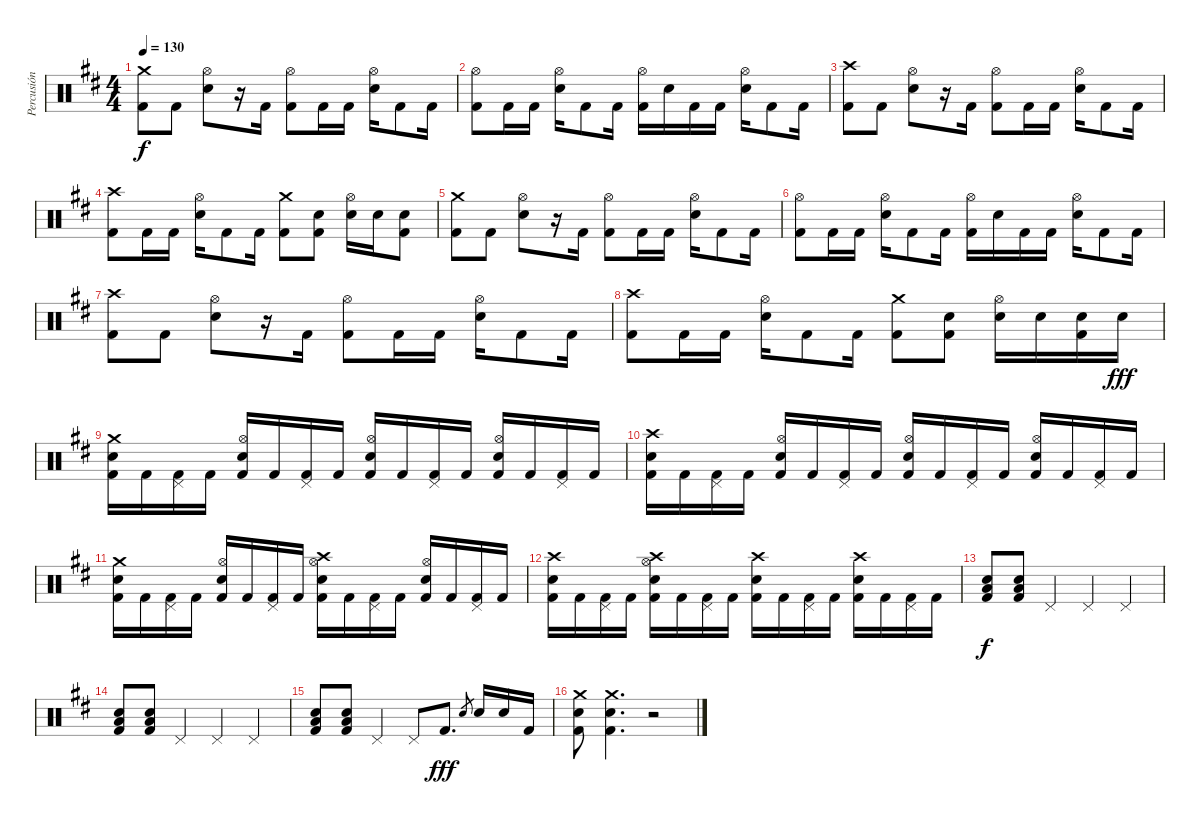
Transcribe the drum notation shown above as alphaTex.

\track ("Percusión" "Percusión") {instrument percussion}
\staff {score}
\articulation defaults
\ts (4 4)
\tempo 130
\clef neutral
\ks d
("Crash medium (hit)" "Kick (hit) 2").8{dy f} "Kick (hit) 2".8 ("Hi-Hat (open)" "Electric Snare (hit)").8 r.16 "Kick (hit) 2".16 ("Hi-Hat (open)" "Kick (hit) 2").8 "Kick (hit) 2".16 "Kick (hit) 2".16 ("Hi-Hat (open)" "Electric Snare (hit)").16 "Kick (hit) 2".8 "Kick (hit) 2".16 |
("Hi-Hat (open)" "Kick (hit) 2").8 "Kick (hit) 2".16 "Kick (hit) 2".16 ("Hi-Hat (open)" "Electric Snare (hit)").16 "Kick (hit) 2".8 "Kick (hit) 2".16 ("Hi-Hat (open)" "Kick (hit) 2").16 "Electric Snare (hit)".16 "Kick (hit) 2".16 "Kick (hit) 2".16 ("Hi-Hat (open)" "Electric Snare (hit)").16 "Kick (hit) 2".8 "Kick (hit) 2".16 |
("Crash high (hit)" "Kick (hit) 2").8 "Kick (hit) 2".8 ("Hi-Hat (open)" "Electric Snare (hit)").8 r.16 "Kick (hit) 2".16 ("Hi-Hat (open)" "Kick (hit) 2").8 "Kick (hit) 2".16 "Kick (hit) 2".16 ("Hi-Hat (open)" "Electric Snare (hit)").16 "Kick (hit) 2".8 "Kick (hit) 2".16 |
("Crash high (hit)" "Kick (hit) 2").8 "Kick (hit) 2".16 "Kick (hit) 2".16 ("Hi-Hat (open)" "Electric Snare (hit)").16 "Kick (hit) 2".8 "Kick (hit) 2".16 ("Crash medium (hit)" "Kick (hit) 2").8 ("Electric Snare (hit)" "Kick (hit) 2").8 ("Hi-Hat (open)" "Electric Snare (hit)").16 "Electric Snare (hit)".16 ("Electric Snare (hit)" "Kick (hit) 2").8 |
("Crash medium (hit)" "Kick (hit) 2").8 "Kick (hit) 2".8 ("Hi-Hat (open)" "Electric Snare (hit)").8 r.16 "Kick (hit) 2".16 ("Hi-Hat (open)" "Kick (hit) 2").8 "Kick (hit) 2".16 "Kick (hit) 2".16 ("Hi-Hat (open)" "Electric Snare (hit)").16 "Kick (hit) 2".8 "Kick (hit) 2".16 |
("Hi-Hat (open)" "Kick (hit) 2").8 "Kick (hit) 2".16 "Kick (hit) 2".16 ("Hi-Hat (open)" "Electric Snare (hit)").16 "Kick (hit) 2".8 "Kick (hit) 2".16 ("Hi-Hat (open)" "Kick (hit) 2").16 "Electric Snare (hit)".16 "Kick (hit) 2".16 "Kick (hit) 2".16 ("Hi-Hat (open)" "Electric Snare (hit)").16 "Kick (hit) 2".8 "Kick (hit) 2".16 |
("Crash high (hit)" "Kick (hit) 2").8 "Kick (hit) 2".8 ("Hi-Hat (open)" "Electric Snare (hit)").8 r.16 "Kick (hit) 2".16 ("Hi-Hat (open)" "Kick (hit) 2").8 "Kick (hit) 2".16 "Kick (hit) 2".16 ("Hi-Hat (open)" "Electric Snare (hit)").16 "Kick (hit) 2".8 "Kick (hit) 2".16 |
("Crash high (hit)" "Kick (hit) 2").8 "Kick (hit) 2".16 "Kick (hit) 2".16 ("Hi-Hat (open)" "Electric Snare (hit)").16 "Kick (hit) 2".8 "Kick (hit) 2".16 ("Crash medium (hit)" "Kick (hit) 2").8 ("Electric Snare (hit)" "Kick (hit) 2").8 ("Hi-Hat (open)" "Electric Snare (hit)").16 "Electric Snare (hit)".16 ("Electric Snare (hit)" "Kick (hit) 2").16 "Electric Snare (hit)".16{dy fff} |
("Crash medium (hit)" "Electric Snare (hit)" "Kick (hit) 2").16 "Kick (hit) 2".16 ("Pedal Hi-Hat (hit)" "Kick (hit) 2").16 "Kick (hit) 2".16 ("Hi-Hat (open)" "Electric Snare (hit)" "Kick (hit) 2").16 "Kick (hit) 2".16 ("Pedal Hi-Hat (hit)" "Kick (hit) 2").16 "Kick (hit) 2".16 ("Hi-Hat (open)" "Electric Snare (hit)" "Kick (hit) 2").16 "Kick (hit) 2".16 ("Pedal Hi-Hat (hit)" "Kick (hit) 2").16 "Kick (hit) 2".16 ("Hi-Hat (open)" "Electric Snare (hit)" "Kick (hit) 2").16 "Kick (hit) 2".16 ("Pedal Hi-Hat (hit)" "Kick (hit) 2").16 "Kick (hit) 2".16 |
("Crash high (hit)" "Electric Snare (hit)" "Kick (hit) 2").16 "Kick (hit) 2".16 ("Pedal Hi-Hat (hit)" "Kick (hit) 2").16 "Kick (hit) 2".16 ("Hi-Hat (open)" "Electric Snare (hit)" "Kick (hit) 2").16 "Kick (hit) 2".16 ("Pedal Hi-Hat (hit)" "Kick (hit) 2").16 "Kick (hit) 2".16 ("Hi-Hat (open)" "Electric Snare (hit)" "Kick (hit) 2").16 "Kick (hit) 2".16 ("Pedal Hi-Hat (hit)" "Kick (hit) 2").16 "Kick (hit) 2".16 ("Hi-Hat (open)" "Electric Snare (hit)" "Kick (hit) 2").16 "Kick (hit) 2".16 ("Pedal Hi-Hat (hit)" "Kick (hit) 2").16 "Kick (hit) 2".16 |
("Crash medium (hit)" "Electric Snare (hit)" "Kick (hit) 2").16 "Kick (hit) 2".16 ("Pedal Hi-Hat (hit)" "Kick (hit) 2").16 "Kick (hit) 2".16 ("Hi-Hat (open)" "Electric Snare (hit)" "Kick (hit) 2").16 "Kick (hit) 2".16 ("Pedal Hi-Hat (hit)" "Kick (hit) 2").16 "Kick (hit) 2".16 ("Crash high (hit)" "Hi-Hat (open)" "Electric Snare (hit)" "Kick (hit) 2").16 "Kick (hit) 2".16 ("Pedal Hi-Hat (hit)" "Kick (hit) 2").16 "Kick (hit) 2".16 ("Hi-Hat (open)" "Electric Snare (hit)" "Kick (hit) 2").16 "Kick (hit) 2".16 ("Pedal Hi-Hat (hit)" "Kick (hit) 2").16 "Kick (hit) 2".16 |
("Crash high (hit)" "Electric Snare (hit)" "Kick (hit) 2").16 "Kick (hit) 2".16 ("Pedal Hi-Hat (hit)" "Kick (hit) 2").16 "Kick (hit) 2".16 ("Crash high (hit)" "Hi-Hat (open)" "Electric Snare (hit)" "Kick (hit) 2").16 "Kick (hit) 2".16 ("Pedal Hi-Hat (hit)" "Kick (hit) 2").16 "Kick (hit) 2".16 ("Crash high (hit)" "Electric Snare (hit)" "Kick (hit) 2").16 "Kick (hit) 2".16 ("Pedal Hi-Hat (hit)" "Kick (hit) 2").16 "Kick (hit) 2".16 ("Crash high (hit)" "Electric Snare (hit)" "Kick (hit) 2").16 "Kick (hit) 2".16 ("Pedal Hi-Hat (hit)" "Kick (hit) 2").16 "Kick (hit) 2".16 |
("Low Floor Tom (hit)" "Electric Snare (hit)" "Kick (hit) 2").8{dy f} ("Low Floor Tom (hit)" "Electric Snare (hit)" "Kick (hit) 2").8 "Pedal Hi-Hat (hit)".4 "Pedal Hi-Hat (hit)".4 "Pedal Hi-Hat (hit)".4 |
("Low Floor Tom (hit)" "Electric Snare (hit)" "Kick (hit) 2").8 ("Low Floor Tom (hit)" "Electric Snare (hit)" "Kick (hit) 2").8 "Pedal Hi-Hat (hit)".4 "Pedal Hi-Hat (hit)".4 "Pedal Hi-Hat (hit)".4 |
("Low Floor Tom (hit)" "Electric Snare (hit)" "Kick (hit) 2").8 ("Low Floor Tom (hit)" "Electric Snare (hit)" "Kick (hit) 2").8 "Pedal Hi-Hat (hit)".4 "Pedal Hi-Hat (hit)".8 "Kick (hit) 2".8{d dy fff} "Electric Snare (hit)".8{gr} "Electric Snare (hit)".16 "Electric Snare (hit)".16 "Kick (hit) 2".16 |
("Crash medium (hit)" "Electric Snare (hit)" "Kick (hit) 2").8 ("Crash medium (hit)" "Electric Snare (hit)" "Kick (hit) 2").4{d} r.2
